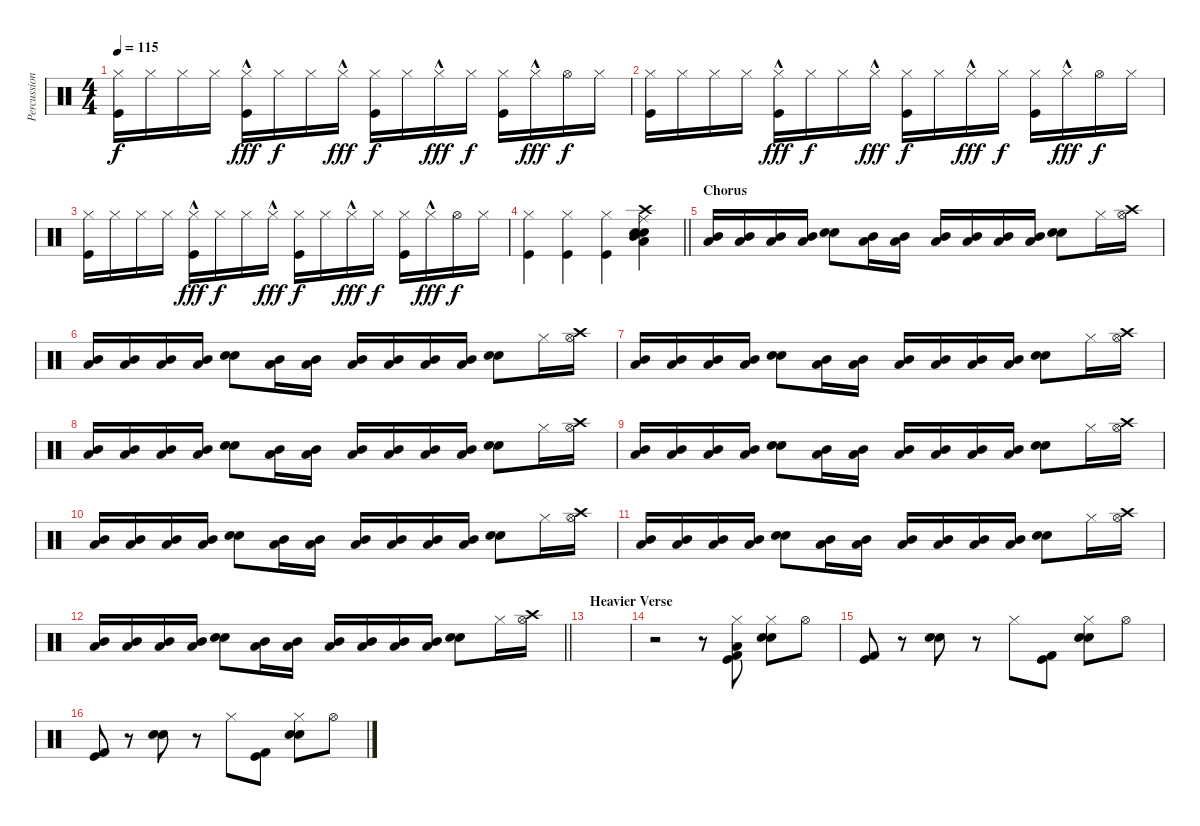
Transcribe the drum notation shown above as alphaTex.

\track ("Percussion" "Percussion") {instrument percussion}
\staff {score}
\articulation defaults
\ts (4 4)
\tempo 115
\clef neutral
\ks c
("Hi-Hat (closed)" "Kick (hit)").16{dy f} "Hi-Hat (closed)".16 "Hi-Hat (closed)".16 "Hi-Hat (closed)".16 ("Hi-Hat (closed)"{hac} "Kick (hit)").16{dy fff} "Hi-Hat (closed)".16{dy f} "Hi-Hat (closed)".16 "Hi-Hat (closed)"{hac}.16{dy fff} ("Hi-Hat (closed)" "Kick (hit)").16{dy f} "Hi-Hat (closed)".16 "Hi-Hat (closed)"{hac}.16{dy fff} "Hi-Hat (closed)".16{dy f} ("Hi-Hat (closed)" "Kick (hit)").16 "Hi-Hat (closed)"{hac}.16{dy fff} "Hi-Hat (open)".16{dy f} "Hi-Hat (closed)".16 |
("Hi-Hat (closed)" "Kick (hit)").16 "Hi-Hat (closed)".16 "Hi-Hat (closed)".16 "Hi-Hat (closed)".16 ("Hi-Hat (closed)"{hac} "Kick (hit)").16{dy fff} "Hi-Hat (closed)".16{dy f} "Hi-Hat (closed)".16 "Hi-Hat (closed)"{hac}.16{dy fff} ("Hi-Hat (closed)" "Kick (hit)").16{dy f} "Hi-Hat (closed)".16 "Hi-Hat (closed)"{hac}.16{dy fff} "Hi-Hat (closed)".16{dy f} ("Hi-Hat (closed)" "Kick (hit)").16 "Hi-Hat (closed)"{hac}.16{dy fff} "Hi-Hat (open)".16{dy f} "Hi-Hat (closed)".16 |
("Hi-Hat (closed)" "Kick (hit)").16 "Hi-Hat (closed)".16 "Hi-Hat (closed)".16 "Hi-Hat (closed)".16 ("Hi-Hat (closed)"{hac} "Kick (hit)").16{dy fff} "Hi-Hat (closed)".16{dy f} "Hi-Hat (closed)".16 "Hi-Hat (closed)"{hac}.16{dy fff} ("Hi-Hat (closed)" "Kick (hit)").16{dy f} "Hi-Hat (closed)".16 "Hi-Hat (closed)"{hac}.16{dy fff} "Hi-Hat (closed)".16{dy f} ("Hi-Hat (closed)" "Kick (hit)").16 "Hi-Hat (closed)"{hac}.16{dy fff} "Hi-Hat (open)".16{dy f} "Hi-Hat (closed)".16 |
\barLineRight lightlight
("Hi-Hat (closed)" "Kick (hit)").4 ("Hi-Hat (closed)" "Kick (hit)").4 ("Hi-Hat (closed)" "Kick (hit)").4 ("Mid Tom (hit)" "Low Tom (hit)" "Electric Snare (hit)" "Snare (hit) 2" "Crash high (hit)" "Ride (middle)").4 |
\section ("" "Chorus")
("Low Tom (hit)" "Mid Tom (hit)").16 ("Low Tom (hit)" "Mid Tom (hit)").16 ("Low Tom (hit)" "Mid Tom (hit)").16 ("Low Tom (hit)" "Mid Tom (hit)").16 ("Snare (hit) 2" "Electric Snare (hit)").8 ("Low Tom (hit)" "Mid Tom (hit)").16 ("Low Tom (hit)" "Mid Tom (hit)").16 ("Low Tom (hit)" "Mid Tom (hit)").16 ("Low Tom (hit)" "Mid Tom (hit)").16 ("Low Tom (hit)" "Mid Tom (hit)").16 ("Low Tom (hit)" "Mid Tom (hit)").16 ("Snare (hit) 2" "Electric Snare (hit)").8 "Hi-Hat (closed)".16 ("Hi-Hat (open)" "Crash high (hit)").16 |
("Low Tom (hit)" "Mid Tom (hit)").16 ("Low Tom (hit)" "Mid Tom (hit)").16 ("Low Tom (hit)" "Mid Tom (hit)").16 ("Low Tom (hit)" "Mid Tom (hit)").16 ("Snare (hit) 2" "Electric Snare (hit)").8 ("Low Tom (hit)" "Mid Tom (hit)").16 ("Low Tom (hit)" "Mid Tom (hit)").16 ("Low Tom (hit)" "Mid Tom (hit)").16 ("Low Tom (hit)" "Mid Tom (hit)").16 ("Low Tom (hit)" "Mid Tom (hit)").16 ("Low Tom (hit)" "Mid Tom (hit)").16 ("Snare (hit) 2" "Electric Snare (hit)").8 "Hi-Hat (closed)".16 ("Hi-Hat (open)" "Crash high (hit)").16 |
("Low Tom (hit)" "Mid Tom (hit)").16 ("Low Tom (hit)" "Mid Tom (hit)").16 ("Low Tom (hit)" "Mid Tom (hit)").16 ("Low Tom (hit)" "Mid Tom (hit)").16 ("Snare (hit) 2" "Electric Snare (hit)").8 ("Low Tom (hit)" "Mid Tom (hit)").16 ("Low Tom (hit)" "Mid Tom (hit)").16 ("Low Tom (hit)" "Mid Tom (hit)").16 ("Low Tom (hit)" "Mid Tom (hit)").16 ("Low Tom (hit)" "Mid Tom (hit)").16 ("Low Tom (hit)" "Mid Tom (hit)").16 ("Snare (hit) 2" "Electric Snare (hit)").8 "Hi-Hat (closed)".16 ("Hi-Hat (open)" "Crash high (hit)").16 |
("Low Tom (hit)" "Mid Tom (hit)").16 ("Low Tom (hit)" "Mid Tom (hit)").16 ("Low Tom (hit)" "Mid Tom (hit)").16 ("Low Tom (hit)" "Mid Tom (hit)").16 ("Snare (hit) 2" "Electric Snare (hit)").8 ("Low Tom (hit)" "Mid Tom (hit)").16 ("Low Tom (hit)" "Mid Tom (hit)").16 ("Low Tom (hit)" "Mid Tom (hit)").16 ("Low Tom (hit)" "Mid Tom (hit)").16 ("Low Tom (hit)" "Mid Tom (hit)").16 ("Low Tom (hit)" "Mid Tom (hit)").16 ("Snare (hit) 2" "Electric Snare (hit)").8 "Hi-Hat (closed)".16 ("Hi-Hat (open)" "Crash high (hit)").16 |
("Low Tom (hit)" "Mid Tom (hit)").16 ("Low Tom (hit)" "Mid Tom (hit)").16 ("Low Tom (hit)" "Mid Tom (hit)").16 ("Low Tom (hit)" "Mid Tom (hit)").16 ("Snare (hit) 2" "Electric Snare (hit)").8 ("Low Tom (hit)" "Mid Tom (hit)").16 ("Low Tom (hit)" "Mid Tom (hit)").16 ("Low Tom (hit)" "Mid Tom (hit)").16 ("Low Tom (hit)" "Mid Tom (hit)").16 ("Low Tom (hit)" "Mid Tom (hit)").16 ("Low Tom (hit)" "Mid Tom (hit)").16 ("Snare (hit) 2" "Electric Snare (hit)").8 "Hi-Hat (closed)".16 ("Hi-Hat (open)" "Crash high (hit)").16 |
("Low Tom (hit)" "Mid Tom (hit)").16 ("Low Tom (hit)" "Mid Tom (hit)").16 ("Low Tom (hit)" "Mid Tom (hit)").16 ("Low Tom (hit)" "Mid Tom (hit)").16 ("Snare (hit) 2" "Electric Snare (hit)").8 ("Low Tom (hit)" "Mid Tom (hit)").16 ("Low Tom (hit)" "Mid Tom (hit)").16 ("Low Tom (hit)" "Mid Tom (hit)").16 ("Low Tom (hit)" "Mid Tom (hit)").16 ("Low Tom (hit)" "Mid Tom (hit)").16 ("Low Tom (hit)" "Mid Tom (hit)").16 ("Snare (hit) 2" "Electric Snare (hit)").8 "Hi-Hat (closed)".16 ("Hi-Hat (open)" "Crash high (hit)").16 |
("Low Tom (hit)" "Mid Tom (hit)").16 ("Low Tom (hit)" "Mid Tom (hit)").16 ("Low Tom (hit)" "Mid Tom (hit)").16 ("Low Tom (hit)" "Mid Tom (hit)").16 ("Snare (hit) 2" "Electric Snare (hit)").8 ("Low Tom (hit)" "Mid Tom (hit)").16 ("Low Tom (hit)" "Mid Tom (hit)").16 ("Low Tom (hit)" "Mid Tom (hit)").16 ("Low Tom (hit)" "Mid Tom (hit)").16 ("Low Tom (hit)" "Mid Tom (hit)").16 ("Low Tom (hit)" "Mid Tom (hit)").16 ("Snare (hit) 2" "Electric Snare (hit)").8 "Hi-Hat (closed)".16 ("Hi-Hat (open)" "Crash high (hit)").16 |
\barLineRight lightlight
("Low Tom (hit)" "Mid Tom (hit)").16 ("Low Tom (hit)" "Mid Tom (hit)").16 ("Low Tom (hit)" "Mid Tom (hit)").16 ("Low Tom (hit)" "Mid Tom (hit)").16 ("Snare (hit) 2" "Electric Snare (hit)").8 ("Low Tom (hit)" "Mid Tom (hit)").16 ("Low Tom (hit)" "Mid Tom (hit)").16 ("Low Tom (hit)" "Mid Tom (hit)").16 ("Low Tom (hit)" "Mid Tom (hit)").16 ("Low Tom (hit)" "Mid Tom (hit)").16 ("Low Tom (hit)" "Mid Tom (hit)").16 ("Snare (hit) 2" "Electric Snare (hit)").8 "Hi-Hat (closed)".16 ("Hi-Hat (open)" "Crash high (hit)").16 |
\section ("" "Heavier Verse")
|
r.2 r.8 ("Hi-Hat (closed)" "Low Tom (hit)" "Kick (hit)" "Kick (hit) 2").8 ("Hi-Hat (closed)" "Snare (hit) 2" "Electric Snare (hit)").8 "Hi-Hat (open)".8 |
("Kick (hit)" "Kick (hit) 2").8 r.8 ("Snare (hit) 2" "Electric Snare (hit)").8 r.8 "Hi-Hat (closed)".8 ("Kick (hit)" "Kick (hit) 2").8 ("Hi-Hat (closed)" "Snare (hit) 2" "Electric Snare (hit)").8 "Hi-Hat (open)".8 |
("Kick (hit)" "Kick (hit) 2").8 r.8 ("Snare (hit) 2" "Electric Snare (hit)").8 r.8 "Hi-Hat (closed)".8 ("Kick (hit)" "Kick (hit) 2").8 ("Hi-Hat (closed)" "Snare (hit) 2" "Electric Snare (hit)").8 "Hi-Hat (open)".8
